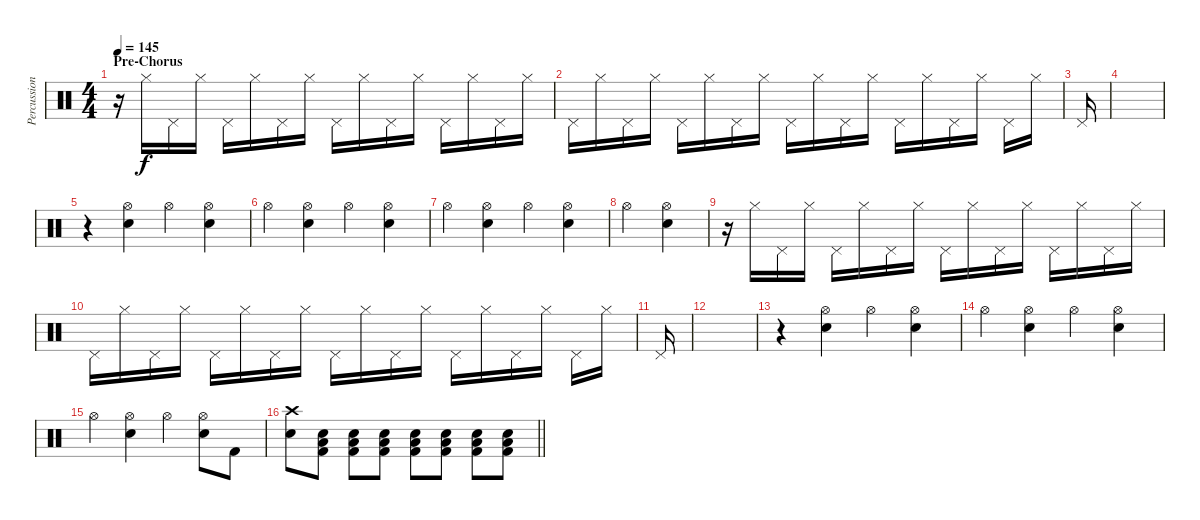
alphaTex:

\track ("Percussion" "Percussion") {instrument percussion}
\staff {score}
\articulation defaults
\ts (4 4)
\section ("" "Pre-Chorus")
\tempo 145
\clef neutral
\ks c
r.16{dy f} "Hi-Hat (closed)".16 "Pedal Hi-Hat (hit)".16 "Hi-Hat (closed)".16 "Pedal Hi-Hat (hit)".16 "Hi-Hat (closed)".16 "Pedal Hi-Hat (hit)".16 "Hi-Hat (closed)".16 "Pedal Hi-Hat (hit)".16 "Hi-Hat (closed)".16 "Pedal Hi-Hat (hit)".16 "Hi-Hat (closed)".16 "Pedal Hi-Hat (hit)".16 "Hi-Hat (closed)".16 "Pedal Hi-Hat (hit)".16 "Hi-Hat (closed)".16 |
"Pedal Hi-Hat (hit)".16 "Hi-Hat (closed)".16 "Pedal Hi-Hat (hit)".16 "Hi-Hat (closed)".16 "Pedal Hi-Hat (hit)".16 "Hi-Hat (closed)".16 "Pedal Hi-Hat (hit)".16 "Hi-Hat (closed)".16 "Pedal Hi-Hat (hit)".16 "Hi-Hat (closed)".16 "Pedal Hi-Hat (hit)".16 "Hi-Hat (closed)".16 "Pedal Hi-Hat (hit)".16 "Hi-Hat (closed)".16 "Pedal Hi-Hat (hit)".16 "Hi-Hat (closed)".16 "Pedal Hi-Hat (hit)".16 "Hi-Hat (closed)".16 |
"Pedal Hi-Hat (hit)".16 |
|
r.4 ("Hi-Hat (open)" "Electric Snare (hit)").4 "Hi-Hat (open)".4 ("Hi-Hat (open)" "Electric Snare (hit)").4 |
"Hi-Hat (open)".4 ("Hi-Hat (open)" "Electric Snare (hit)").4 "Hi-Hat (open)".4 ("Hi-Hat (open)" "Electric Snare (hit)").4 |
"Hi-Hat (open)".4 ("Hi-Hat (open)" "Electric Snare (hit)").4 "Hi-Hat (open)".4 ("Hi-Hat (open)" "Electric Snare (hit)").4 |
"Hi-Hat (open)".4 ("Hi-Hat (open)" "Electric Snare (hit)").4 |
r.16 "Hi-Hat (closed)".16 "Pedal Hi-Hat (hit)".16 "Hi-Hat (closed)".16 "Pedal Hi-Hat (hit)".16 "Hi-Hat (closed)".16 "Pedal Hi-Hat (hit)".16 "Hi-Hat (closed)".16 "Pedal Hi-Hat (hit)".16 "Hi-Hat (closed)".16 "Pedal Hi-Hat (hit)".16 "Hi-Hat (closed)".16 "Pedal Hi-Hat (hit)".16 "Hi-Hat (closed)".16 "Pedal Hi-Hat (hit)".16 "Hi-Hat (closed)".16 |
"Pedal Hi-Hat (hit)".16 "Hi-Hat (closed)".16 "Pedal Hi-Hat (hit)".16 "Hi-Hat (closed)".16 "Pedal Hi-Hat (hit)".16 "Hi-Hat (closed)".16 "Pedal Hi-Hat (hit)".16 "Hi-Hat (closed)".16 "Pedal Hi-Hat (hit)".16 "Hi-Hat (closed)".16 "Pedal Hi-Hat (hit)".16 "Hi-Hat (closed)".16 "Pedal Hi-Hat (hit)".16 "Hi-Hat (closed)".16 "Pedal Hi-Hat (hit)".16 "Hi-Hat (closed)".16 "Pedal Hi-Hat (hit)".16 "Hi-Hat (closed)".16 |
"Pedal Hi-Hat (hit)".16 |
|
r.4 ("Hi-Hat (open)" "Electric Snare (hit)").4 "Hi-Hat (open)".4 ("Hi-Hat (open)" "Electric Snare (hit)").4 |
"Hi-Hat (open)".4 ("Hi-Hat (open)" "Electric Snare (hit)").4 "Hi-Hat (open)".4 ("Hi-Hat (open)" "Electric Snare (hit)").4 |
"Hi-Hat (open)".4 ("Hi-Hat (open)" "Electric Snare (hit)").4 "Hi-Hat (open)".4 ("Hi-Hat (open)" "Electric Snare (hit)").8 "Kick (hit) 2".8 |
\barLineRight lightlight
("Crash high (hit)" "Electric Snare (hit)").8 ("Kick (hit) 2" "Low Floor Tom (hit)" "Electric Snare (hit)").8 ("Kick (hit) 2" "Low Floor Tom (hit)" "Electric Snare (hit)").8 ("Kick (hit) 2" "Low Floor Tom (hit)" "Electric Snare (hit)").8 ("Kick (hit) 2" "Low Floor Tom (hit)" "Electric Snare (hit)").8 ("Kick (hit) 2" "Low Floor Tom (hit)" "Electric Snare (hit)").8 ("Kick (hit) 2" "Low Floor Tom (hit)" "Electric Snare (hit)").8 ("Kick (hit) 2" "Low Floor Tom (hit)" "Electric Snare (hit)").8
